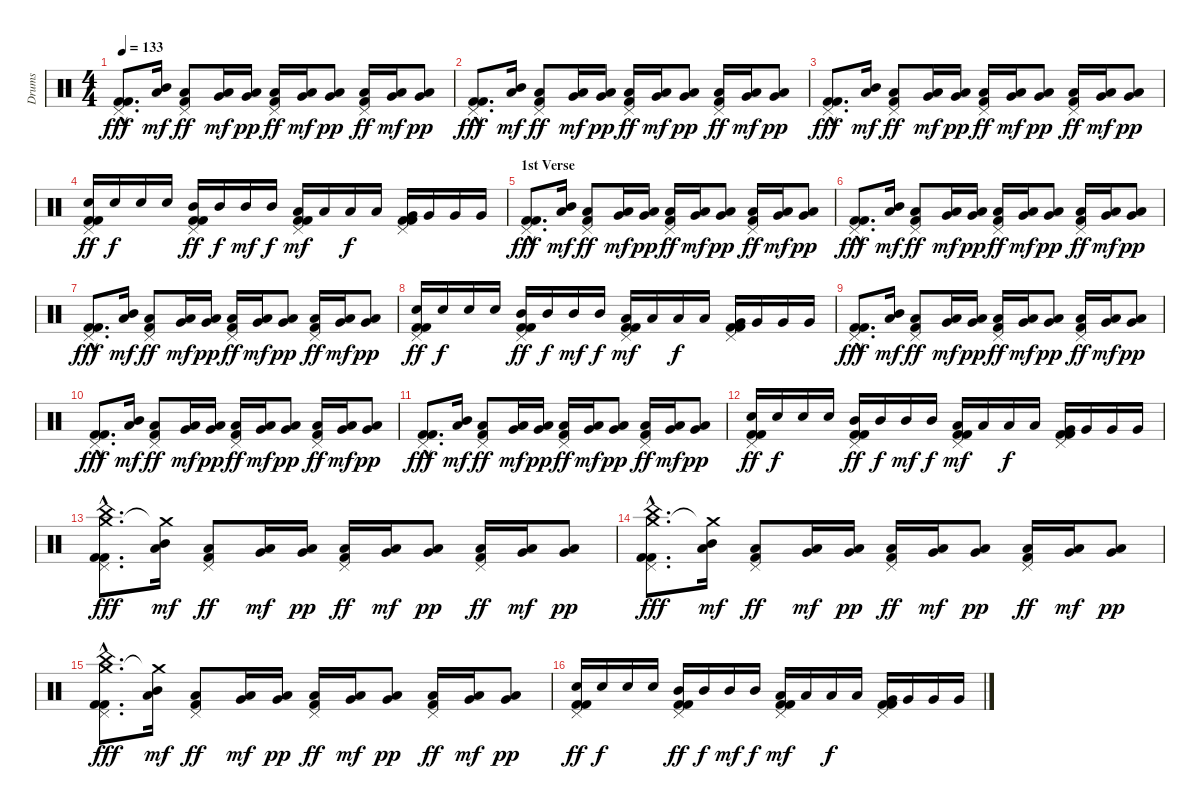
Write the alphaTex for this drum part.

\track ("Drums" "Drums") {instrument percussion}
\staff {score}
\articulation defaults
\ts (4 4)
\tempo 133
\clef neutral
\ks c
("Pedal Hi-Hat (hit)"{hac} "Kick (hit) 2"{hac} "Kick (hit) 2"{hac}).8{d dy fff} ("Mid Tom (hit)" "Low Tom (hit)").16{dy mf} ("Pedal Hi-Hat (hit)" "Low Tom (hit)" "Kick (hit) 2").8{dy ff} ("Low Tom (hit)" "Very Low Tom (hit)").16{dy mf} ("Low Tom (hit)" "Very Low Tom (hit)").16{dy pp} ("Pedal Hi-Hat (hit)" "Low Tom (hit)" "Kick (hit) 2").16{dy ff} ("Low Tom (hit)" "Very Low Tom (hit)").16{dy mf} ("Low Tom (hit)" "Very Low Tom (hit)").8{dy pp} ("Pedal Hi-Hat (hit)" "Low Tom (hit)" "Kick (hit) 2").16{dy ff} ("Low Tom (hit)" "Very Low Tom (hit)").16{dy mf} ("Low Tom (hit)" "Very Low Tom (hit)").8{dy pp} |
("Pedal Hi-Hat (hit)"{hac} "Kick (hit) 2"{hac} "Kick (hit) 2"{hac}).8{d dy fff} ("Mid Tom (hit)" "Low Tom (hit)").16{dy mf} ("Pedal Hi-Hat (hit)" "Low Tom (hit)" "Kick (hit) 2").8{dy ff} ("Low Tom (hit)" "Very Low Tom (hit)").16{dy mf} ("Low Tom (hit)" "Very Low Tom (hit)").16{dy pp} ("Pedal Hi-Hat (hit)" "Low Tom (hit)" "Kick (hit) 2").16{dy ff} ("Low Tom (hit)" "Very Low Tom (hit)").16{dy mf} ("Low Tom (hit)" "Very Low Tom (hit)").8{dy pp} ("Pedal Hi-Hat (hit)" "Low Tom (hit)" "Kick (hit) 2").16{dy ff} ("Low Tom (hit)" "Very Low Tom (hit)").16{dy mf} ("Low Tom (hit)" "Very Low Tom (hit)").8{dy pp} |
("Pedal Hi-Hat (hit)"{hac} "Kick (hit) 2"{hac} "Kick (hit) 2"{hac}).8{d dy fff} ("Mid Tom (hit)" "Low Tom (hit)").16{dy mf} ("Pedal Hi-Hat (hit)" "Low Tom (hit)" "Kick (hit) 2").8{dy ff} ("Low Tom (hit)" "Very Low Tom (hit)").16{dy mf} ("Low Tom (hit)" "Very Low Tom (hit)").16{dy pp} ("Pedal Hi-Hat (hit)" "Low Tom (hit)" "Kick (hit) 2").16{dy ff} ("Low Tom (hit)" "Very Low Tom (hit)").16{dy mf} ("Low Tom (hit)" "Very Low Tom (hit)").8{dy pp} ("Pedal Hi-Hat (hit)" "Low Tom (hit)" "Kick (hit) 2").16{dy ff} ("Low Tom (hit)" "Very Low Tom (hit)").16{dy mf} ("Low Tom (hit)" "Very Low Tom (hit)").8{dy pp} |
("Pedal Hi-Hat (hit)" "Electric Snare (hit)" "Kick (hit) 2" "Kick (hit) 2").16{dy ff} "Electric Snare (hit)".16{dy f} "Electric Snare (hit)".16 "Electric Snare (hit)".16 ("Pedal Hi-Hat (hit)" "Mid Tom (hit)" "Kick (hit) 2" "Kick (hit) 2").16{dy ff} "Mid Tom (hit)".16{dy f} "Mid Tom (hit)".16{dy mf} "Mid Tom (hit)".16{dy f} ("Pedal Hi-Hat (hit)" "Low Tom (hit)" "Kick (hit) 2" "Kick (hit) 2").16{dy mf} "Low Tom (hit)".16 "Low Tom (hit)".16{dy f} "Low Tom (hit)".16 ("Pedal Hi-Hat (hit)" "Very Low Tom (hit)" "Kick (hit) 2" "Kick (hit) 2").16 "Very Low Tom (hit)".16 "Very Low Tom (hit)".16 "Very Low Tom (hit)".16 |
\section ("" "1st Verse")
("Pedal Hi-Hat (hit)"{hac} "Kick (hit) 2"{hac} "Kick (hit) 2"{hac}).8{d dy fff} ("Mid Tom (hit)" "Low Tom (hit)").16{dy mf} ("Pedal Hi-Hat (hit)" "Low Tom (hit)" "Kick (hit) 2").8{dy ff} ("Low Tom (hit)" "Very Low Tom (hit)").16{dy mf} ("Low Tom (hit)" "Very Low Tom (hit)").16{dy pp} ("Pedal Hi-Hat (hit)" "Low Tom (hit)" "Kick (hit) 2").16{dy ff} ("Low Tom (hit)" "Very Low Tom (hit)").16{dy mf} ("Low Tom (hit)" "Very Low Tom (hit)").8{dy pp} ("Pedal Hi-Hat (hit)" "Low Tom (hit)" "Kick (hit) 2").16{dy ff} ("Low Tom (hit)" "Very Low Tom (hit)").16{dy mf} ("Low Tom (hit)" "Very Low Tom (hit)").8{dy pp} |
("Pedal Hi-Hat (hit)"{hac} "Kick (hit) 2"{hac} "Kick (hit) 2"{hac}).8{d dy fff} ("Mid Tom (hit)" "Low Tom (hit)").16{dy mf} ("Pedal Hi-Hat (hit)" "Low Tom (hit)" "Kick (hit) 2").8{dy ff} ("Low Tom (hit)" "Very Low Tom (hit)").16{dy mf} ("Low Tom (hit)" "Very Low Tom (hit)").16{dy pp} ("Pedal Hi-Hat (hit)" "Low Tom (hit)" "Kick (hit) 2").16{dy ff} ("Low Tom (hit)" "Very Low Tom (hit)").16{dy mf} ("Low Tom (hit)" "Very Low Tom (hit)").8{dy pp} ("Pedal Hi-Hat (hit)" "Low Tom (hit)" "Kick (hit) 2").16{dy ff} ("Low Tom (hit)" "Very Low Tom (hit)").16{dy mf} ("Low Tom (hit)" "Very Low Tom (hit)").8{dy pp} |
("Pedal Hi-Hat (hit)"{hac} "Kick (hit) 2"{hac} "Kick (hit) 2"{hac}).8{d dy fff} ("Mid Tom (hit)" "Low Tom (hit)").16{dy mf} ("Pedal Hi-Hat (hit)" "Low Tom (hit)" "Kick (hit) 2").8{dy ff} ("Low Tom (hit)" "Very Low Tom (hit)").16{dy mf} ("Low Tom (hit)" "Very Low Tom (hit)").16{dy pp} ("Pedal Hi-Hat (hit)" "Low Tom (hit)" "Kick (hit) 2").16{dy ff} ("Low Tom (hit)" "Very Low Tom (hit)").16{dy mf} ("Low Tom (hit)" "Very Low Tom (hit)").8{dy pp} ("Pedal Hi-Hat (hit)" "Low Tom (hit)" "Kick (hit) 2").16{dy ff} ("Low Tom (hit)" "Very Low Tom (hit)").16{dy mf} ("Low Tom (hit)" "Very Low Tom (hit)").8{dy pp} |
("Pedal Hi-Hat (hit)" "Electric Snare (hit)" "Kick (hit) 2" "Kick (hit) 2").16{dy ff} "Electric Snare (hit)".16{dy f} "Electric Snare (hit)".16 "Electric Snare (hit)".16 ("Pedal Hi-Hat (hit)" "Mid Tom (hit)" "Kick (hit) 2" "Kick (hit) 2").16{dy ff} "Mid Tom (hit)".16{dy f} "Mid Tom (hit)".16{dy mf} "Mid Tom (hit)".16{dy f} ("Pedal Hi-Hat (hit)" "Low Tom (hit)" "Kick (hit) 2" "Kick (hit) 2").16{dy mf} "Low Tom (hit)".16 "Low Tom (hit)".16{dy f} "Low Tom (hit)".16 ("Pedal Hi-Hat (hit)" "Very Low Tom (hit)" "Kick (hit) 2" "Kick (hit) 2").16 "Very Low Tom (hit)".16 "Very Low Tom (hit)".16 "Very Low Tom (hit)".16 |
("Pedal Hi-Hat (hit)"{hac} "Kick (hit) 2"{hac} "Kick (hit) 2"{hac}).8{d dy fff} ("Mid Tom (hit)" "Low Tom (hit)").16{dy mf} ("Pedal Hi-Hat (hit)" "Low Tom (hit)" "Kick (hit) 2").8{dy ff} ("Low Tom (hit)" "Very Low Tom (hit)").16{dy mf} ("Low Tom (hit)" "Very Low Tom (hit)").16{dy pp} ("Pedal Hi-Hat (hit)" "Low Tom (hit)" "Kick (hit) 2").16{dy ff} ("Low Tom (hit)" "Very Low Tom (hit)").16{dy mf} ("Low Tom (hit)" "Very Low Tom (hit)").8{dy pp} ("Pedal Hi-Hat (hit)" "Low Tom (hit)" "Kick (hit) 2").16{dy ff} ("Low Tom (hit)" "Very Low Tom (hit)").16{dy mf} ("Low Tom (hit)" "Very Low Tom (hit)").8{dy pp} |
("Pedal Hi-Hat (hit)"{hac} "Kick (hit) 2"{hac} "Kick (hit) 2"{hac}).8{d dy fff} ("Mid Tom (hit)" "Low Tom (hit)").16{dy mf} ("Pedal Hi-Hat (hit)" "Low Tom (hit)" "Kick (hit) 2").8{dy ff} ("Low Tom (hit)" "Very Low Tom (hit)").16{dy mf} ("Low Tom (hit)" "Very Low Tom (hit)").16{dy pp} ("Pedal Hi-Hat (hit)" "Low Tom (hit)" "Kick (hit) 2").16{dy ff} ("Low Tom (hit)" "Very Low Tom (hit)").16{dy mf} ("Low Tom (hit)" "Very Low Tom (hit)").8{dy pp} ("Pedal Hi-Hat (hit)" "Low Tom (hit)" "Kick (hit) 2").16{dy ff} ("Low Tom (hit)" "Very Low Tom (hit)").16{dy mf} ("Low Tom (hit)" "Very Low Tom (hit)").8{dy pp} |
("Pedal Hi-Hat (hit)"{hac} "Kick (hit) 2"{hac} "Kick (hit) 2"{hac}).8{d dy fff} ("Mid Tom (hit)" "Low Tom (hit)").16{dy mf} ("Pedal Hi-Hat (hit)" "Low Tom (hit)" "Kick (hit) 2").8{dy ff} ("Low Tom (hit)" "Very Low Tom (hit)").16{dy mf} ("Low Tom (hit)" "Very Low Tom (hit)").16{dy pp} ("Pedal Hi-Hat (hit)" "Low Tom (hit)" "Kick (hit) 2").16{dy ff} ("Low Tom (hit)" "Very Low Tom (hit)").16{dy mf} ("Low Tom (hit)" "Very Low Tom (hit)").8{dy pp} ("Pedal Hi-Hat (hit)" "Low Tom (hit)" "Kick (hit) 2").16{dy ff} ("Low Tom (hit)" "Very Low Tom (hit)").16{dy mf} ("Low Tom (hit)" "Very Low Tom (hit)").8{dy pp} |
("Pedal Hi-Hat (hit)" "Electric Snare (hit)" "Kick (hit) 2" "Kick (hit) 2").16{dy ff} "Electric Snare (hit)".16{dy f} "Electric Snare (hit)".16 "Electric Snare (hit)".16 ("Pedal Hi-Hat (hit)" "Mid Tom (hit)" "Kick (hit) 2" "Kick (hit) 2").16{dy ff} "Mid Tom (hit)".16{dy f} "Mid Tom (hit)".16{dy mf} "Mid Tom (hit)".16{dy f} ("Pedal Hi-Hat (hit)" "Low Tom (hit)" "Kick (hit) 2" "Kick (hit) 2").16{dy mf} "Low Tom (hit)".16 "Low Tom (hit)".16{dy f} "Low Tom (hit)".16 ("Pedal Hi-Hat (hit)" "Very Low Tom (hit)" "Kick (hit) 2" "Kick (hit) 2").16 "Very Low Tom (hit)".16 "Very Low Tom (hit)".16 "Very Low Tom (hit)".16 |
("Crash medium (hit)"{hac} "China (hit)"{hac} "Pedal Hi-Hat (hit)"{hac} "Kick (hit) 2"{hac} "Kick (hit) 2"{hac}).8{d dy fff} ("Crash medium (hit)"{t} "Mid Tom (hit)" "Low Tom (hit)").16{dy mf} ("Pedal Hi-Hat (hit)" "Low Tom (hit)" "Kick (hit) 2").8{dy ff} ("Low Tom (hit)" "Very Low Tom (hit)").16{dy mf} ("Low Tom (hit)" "Very Low Tom (hit)").16{dy pp} ("Pedal Hi-Hat (hit)" "Low Tom (hit)" "Kick (hit) 2").16{dy ff} ("Low Tom (hit)" "Very Low Tom (hit)").16{dy mf} ("Low Tom (hit)" "Very Low Tom (hit)").8{dy pp} ("Pedal Hi-Hat (hit)" "Low Tom (hit)" "Kick (hit) 2").16{dy ff} ("Low Tom (hit)" "Very Low Tom (hit)").16{dy mf} ("Low Tom (hit)" "Very Low Tom (hit)").8{dy pp} |
("Crash medium (hit)"{hac} "China (hit)"{hac} "Pedal Hi-Hat (hit)"{hac} "Kick (hit) 2"{hac} "Kick (hit) 2"{hac}).8{d dy fff} ("Crash medium (hit)"{t} "Mid Tom (hit)" "Low Tom (hit)").16{dy mf} ("Pedal Hi-Hat (hit)" "Low Tom (hit)" "Kick (hit) 2").8{dy ff} ("Low Tom (hit)" "Very Low Tom (hit)").16{dy mf} ("Low Tom (hit)" "Very Low Tom (hit)").16{dy pp} ("Pedal Hi-Hat (hit)" "Low Tom (hit)" "Kick (hit) 2").16{dy ff} ("Low Tom (hit)" "Very Low Tom (hit)").16{dy mf} ("Low Tom (hit)" "Very Low Tom (hit)").8{dy pp} ("Pedal Hi-Hat (hit)" "Low Tom (hit)" "Kick (hit) 2").16{dy ff} ("Low Tom (hit)" "Very Low Tom (hit)").16{dy mf} ("Low Tom (hit)" "Very Low Tom (hit)").8{dy pp} |
("Crash medium (hit)"{hac} "China (hit)"{hac} "Pedal Hi-Hat (hit)"{hac} "Kick (hit) 2"{hac} "Kick (hit) 2"{hac}).8{d dy fff} ("Crash medium (hit)"{t} "Mid Tom (hit)" "Low Tom (hit)").16{dy mf} ("Pedal Hi-Hat (hit)" "Low Tom (hit)" "Kick (hit) 2").8{dy ff} ("Low Tom (hit)" "Very Low Tom (hit)").16{dy mf} ("Low Tom (hit)" "Very Low Tom (hit)").16{dy pp} ("Pedal Hi-Hat (hit)" "Low Tom (hit)" "Kick (hit) 2").16{dy ff} ("Low Tom (hit)" "Very Low Tom (hit)").16{dy mf} ("Low Tom (hit)" "Very Low Tom (hit)").8{dy pp} ("Pedal Hi-Hat (hit)" "Low Tom (hit)" "Kick (hit) 2").16{dy ff} ("Low Tom (hit)" "Very Low Tom (hit)").16{dy mf} ("Low Tom (hit)" "Very Low Tom (hit)").8{dy pp} |
("Pedal Hi-Hat (hit)" "Electric Snare (hit)" "Kick (hit) 2" "Kick (hit) 2").16{dy ff} "Electric Snare (hit)".16{dy f} "Electric Snare (hit)".16 "Electric Snare (hit)".16 ("Pedal Hi-Hat (hit)" "Mid Tom (hit)" "Kick (hit) 2" "Kick (hit) 2").16{dy ff} "Mid Tom (hit)".16{dy f} "Mid Tom (hit)".16{dy mf} "Mid Tom (hit)".16{dy f} ("Pedal Hi-Hat (hit)" "Low Tom (hit)" "Kick (hit) 2" "Kick (hit) 2").16{dy mf} "Low Tom (hit)".16 "Low Tom (hit)".16{dy f} "Low Tom (hit)".16 ("Pedal Hi-Hat (hit)" "Very Low Tom (hit)" "Kick (hit) 2" "Kick (hit) 2").16 "Very Low Tom (hit)".16 "Very Low Tom (hit)".16 "Very Low Tom (hit)".16
